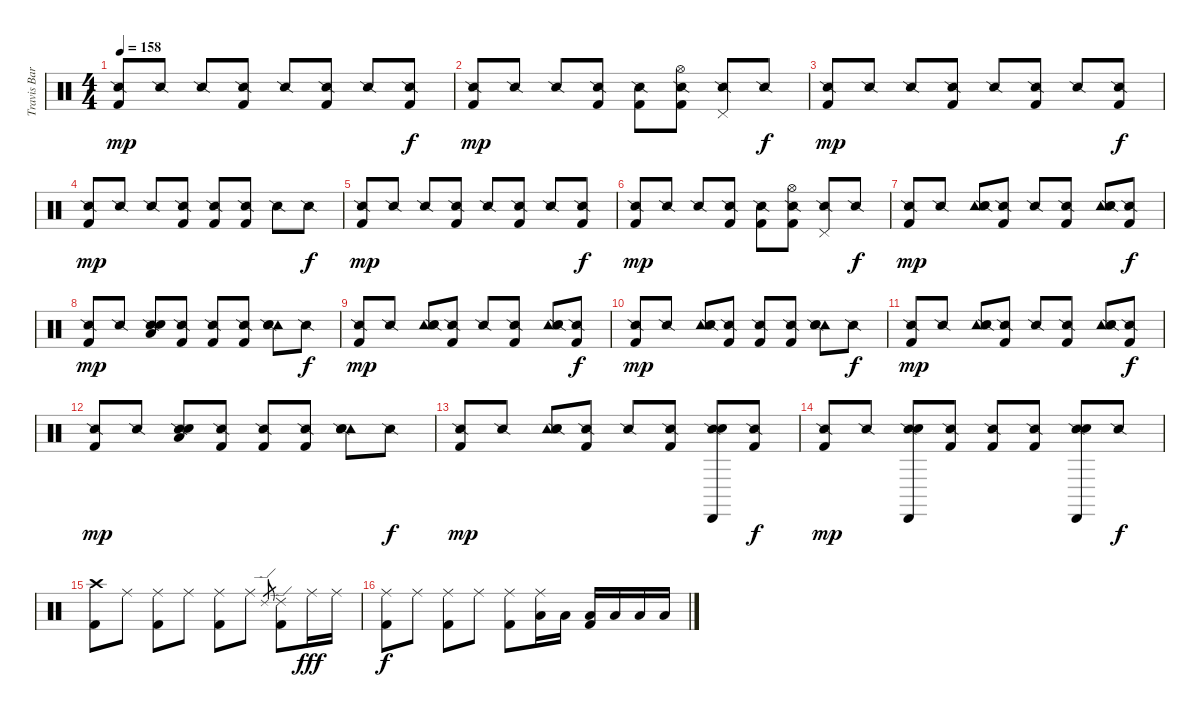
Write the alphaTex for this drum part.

\track ("Travis Barker - Drums" "Travis Bar") {instrument percussion}
\staff {score}
\articulation defaults
\ts (4 4)
\tempo 158
\clef neutral
\ks c
("Snare (side stick) 2" "Kick (hit) 2").8{dy mp} "Snare (side stick) 2".8 "Snare (side stick) 2".8 ("Snare (side stick) 2" "Kick (hit) 2").8 "Snare (side stick) 2".8 ("Snare (side stick) 2" "Kick (hit) 2").8 "Snare (side stick) 2".8 ("Snare (side stick) 2" "Kick (hit) 2").8{dy f} |
("Snare (side stick) 2" "Kick (hit) 2").8{dy mp} "Snare (side stick) 2".8 "Snare (side stick) 2".8 ("Snare (side stick) 2" "Kick (hit) 2").8 ("Snare (side stick) 2" "Kick (hit) 2").8 ("Hi-Hat (open)" "Snare (side stick) 2" "Kick (hit) 2").8 ("Pedal Hi-Hat (hit)" "Snare (side stick) 2").8 "Snare (side stick) 2".8{dy f} |
("Snare (side stick) 2" "Kick (hit) 2").8{dy mp} "Snare (side stick) 2".8 "Snare (side stick) 2".8 ("Snare (side stick) 2" "Kick (hit) 2").8 "Snare (side stick) 2".8 ("Snare (side stick) 2" "Kick (hit) 2").8 "Snare (side stick) 2".8 ("Snare (side stick) 2" "Kick (hit) 2").8{dy f} |
("Snare (side stick) 2" "Kick (hit) 2").8{dy mp} "Snare (side stick) 2".8 "Snare (side stick) 2".8 ("Snare (side stick) 2" "Kick (hit) 2").8 ("Snare (side stick) 2" "Kick (hit) 2").8 ("Snare (side stick) 2" "Kick (hit) 2").8 "Snare (side stick) 2".8 "Snare (side stick) 2".8{dy f} |
("Snare (side stick) 2" "Kick (hit) 2").8{dy mp} "Snare (side stick) 2".8 "Snare (side stick) 2".8 ("Snare (side stick) 2" "Kick (hit) 2").8 "Snare (side stick) 2".8 ("Snare (side stick) 2" "Kick (hit) 2").8 "Snare (side stick) 2".8 ("Snare (side stick) 2" "Kick (hit) 2").8{dy f} |
("Snare (side stick) 2" "Kick (hit) 2").8{dy mp} "Snare (side stick) 2".8 "Snare (side stick) 2".8 ("Snare (side stick) 2" "Kick (hit) 2").8 ("Snare (side stick) 2" "Kick (hit) 2").8 ("Hi-Hat (open)" "Snare (side stick) 2" "Kick (hit) 2").8 ("Pedal Hi-Hat (hit)" "Snare (side stick) 2").8 "Snare (side stick) 2".8{dy f} |
("Snare (side stick) 2" "Kick (hit) 2").8{dy mp} "Snare (side stick) 2".8 ("Tambourine (hit)" "Snare (side stick) 2" "Electric Snare (hit)").8 ("Snare (side stick) 2" "Kick (hit) 2").8 "Snare (side stick) 2".8 ("Snare (side stick) 2" "Kick (hit) 2").8 ("Tambourine (hit)" "Snare (side stick) 2" "Electric Snare (hit)").8 ("Snare (side stick) 2" "Kick (hit) 2").8{dy f} |
("Snare (side stick) 2" "Kick (hit) 2").8{dy mp} "Snare (side stick) 2".8 ("Low Tom (hit)" "Snare (side stick) 2" "Electric Snare (hit)").8 ("Snare (side stick) 2" "Kick (hit) 2").8 ("Snare (side stick) 2" "Kick (hit) 2").8 ("Snare (side stick) 2" "Kick (hit) 2").8 ("Tambourine (hit)" "Snare (side stick) 2" "Electric Snare (hit)").8 "Snare (side stick) 2".8{dy f} |
("Snare (side stick) 2" "Kick (hit) 2").8{dy mp} "Snare (side stick) 2".8 ("Tambourine (hit)" "Snare (side stick) 2" "Electric Snare (hit)").8 ("Snare (side stick) 2" "Kick (hit) 2").8 "Snare (side stick) 2".8 ("Snare (side stick) 2" "Kick (hit) 2").8 ("Tambourine (hit)" "Snare (side stick) 2" "Electric Snare (hit)").8 ("Snare (side stick) 2" "Kick (hit) 2").8{dy f} |
("Snare (side stick) 2" "Kick (hit) 2").8{dy mp} "Snare (side stick) 2".8 ("Tambourine (hit)" "Snare (side stick) 2" "Electric Snare (hit)").8 ("Snare (side stick) 2" "Kick (hit) 2").8 ("Snare (side stick) 2" "Kick (hit) 2").8 ("Snare (side stick) 2" "Kick (hit) 2").8 ("Tambourine (hit)" "Snare (side stick) 2" "Electric Snare (hit)").8 "Snare (side stick) 2".8{dy f} |
("Snare (side stick) 2" "Kick (hit) 2").8{dy mp} "Snare (side stick) 2".8 ("Tambourine (hit)" "Snare (side stick) 2" "Electric Snare (hit)").8 ("Snare (side stick) 2" "Kick (hit) 2").8 "Snare (side stick) 2".8 ("Snare (side stick) 2" "Kick (hit) 2").8 ("Tambourine (hit)" "Snare (side stick) 2" "Electric Snare (hit)").8 ("Snare (side stick) 2" "Kick (hit) 2").8{dy f} |
("Snare (side stick) 2" "Kick (hit) 2").8{dy mp} "Snare (side stick) 2".8 ("Low Tom (hit)" "Snare (side stick) 2" "Electric Snare (hit)").8 ("Snare (side stick) 2" "Kick (hit) 2").8 ("Snare (side stick) 2" "Kick (hit) 2").8 ("Snare (side stick) 2" "Kick (hit) 2").8 ("Tambourine (hit)" "Snare (side stick) 2" "Electric Snare (hit)").8 "Snare (side stick) 2".8{dy f} |
("Snare (side stick) 2" "Kick (hit) 2").8{dy mp} "Snare (side stick) 2".8 ("Tambourine (hit)" "Snare (side stick) 2" "Electric Snare (hit)").8 ("Snare (side stick) 2" "Kick (hit) 2").8 "Snare (side stick) 2".8 ("Snare (side stick) 2" "Kick (hit) 2").8 ("Cabasa (hit)" "Snare (side stick) 2" "Electric Snare (hit)").8 ("Snare (side stick) 2" "Kick (hit) 2").8{dy f} |
("Snare (side stick) 2" "Kick (hit) 2").8{dy mp} "Snare (side stick) 2".8 ("Cabasa (hit)" "Snare (side stick) 2" "Electric Snare (hit)").8 ("Snare (side stick) 2" "Kick (hit) 2").8 ("Snare (side stick) 2" "Kick (hit) 2").8 ("Snare (side stick) 2" "Kick (hit) 2").8 ("Cabasa (hit)" "Snare (side stick) 2" "Electric Snare (hit)").8 "Snare (side stick) 2".8{dy f} |
("Crash high (hit)" "Kick (hit) 2").8 "Ride (middle)".8 ("Ride (middle)" "Kick (hit) 2").8 "Ride (middle)".8 ("Ride (middle)" "Kick (hit) 2").8 "Ride (middle)".8 "Ride (edge) 2".8{gr} ("Ride (edge) 2" "Kick (hit) 2").8 "Ride (middle)".16{dy fff} "Ride (middle)".16 |
("Ride (middle)" "Kick (hit) 2").8{dy f} "Ride (middle)".8 ("Ride (middle)" "Kick (hit) 2").8 "Ride (middle)".8 ("Ride (middle)" "Kick (hit) 2").8 ("Ride (middle)" "Low Tom (hit)").16 "Low Tom (hit)".16 ("Low Tom (hit)" "Kick (hit) 2").16 "Low Tom (hit)".16 "Low Tom (hit)".16 "Low Tom (hit)".16
